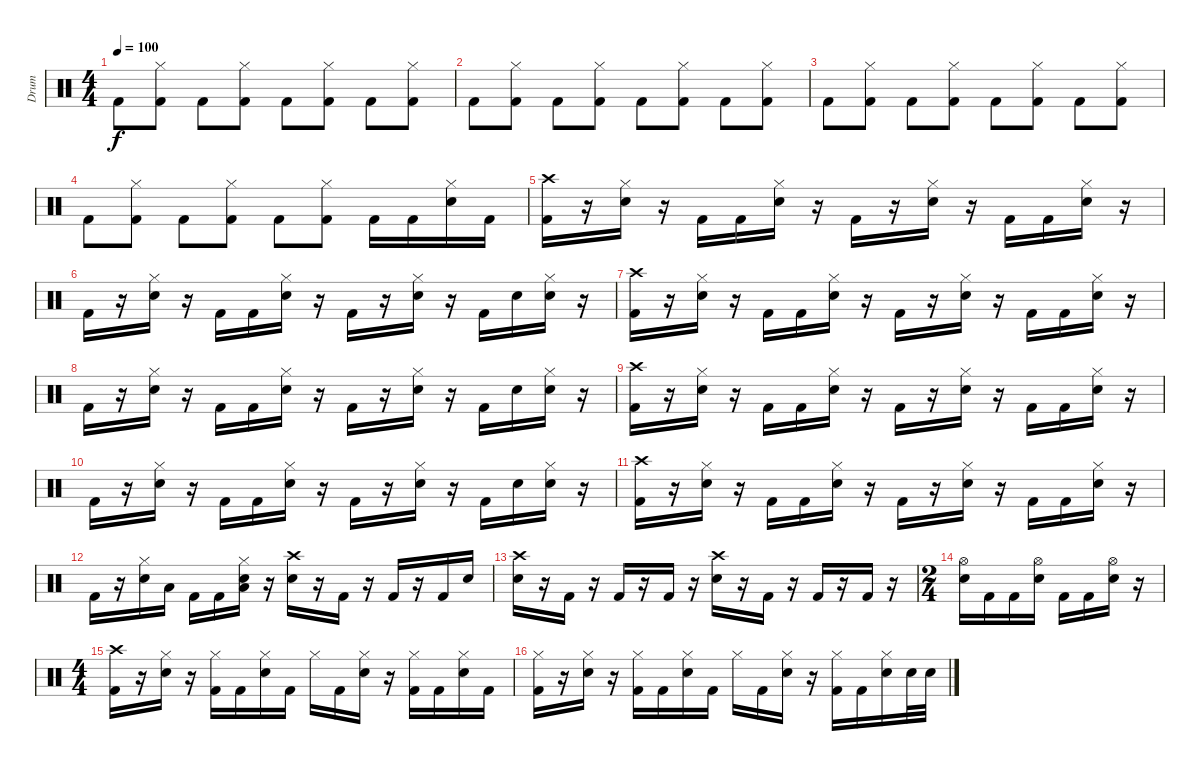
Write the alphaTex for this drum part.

\track ("Drum" "Drum") {instrument percussion}
\staff {score}
\articulation defaults
\ts (4 4)
\tempo 100
\clef neutral
\ks c "Kick (hit) 2".8{dy f}
("Hi-Hat (closed)" "Kick (hit) 2").8 "Kick (hit) 2".8 ("Hi-Hat (closed)" "Kick (hit) 2").8 "Kick (hit) 2".8 ("Hi-Hat (closed)" "Kick (hit) 2").8 "Kick (hit) 2".8 ("Hi-Hat (closed)" "Kick (hit) 2").8 |
"Kick (hit) 2".8 ("Hi-Hat (closed)" "Kick (hit) 2").8 "Kick (hit) 2".8 ("Hi-Hat (closed)" "Kick (hit) 2").8 "Kick (hit) 2".8 ("Hi-Hat (closed)" "Kick (hit) 2").8 "Kick (hit) 2".8 ("Hi-Hat (closed)" "Kick (hit) 2").8 |
"Kick (hit) 2".8 ("Hi-Hat (closed)" "Kick (hit) 2").8 "Kick (hit) 2".8 ("Hi-Hat (closed)" "Kick (hit) 2").8 "Kick (hit) 2".8 ("Hi-Hat (closed)" "Kick (hit) 2").8 "Kick (hit) 2".8 ("Hi-Hat (closed)" "Kick (hit) 2").8 |
"Kick (hit) 2".8 ("Hi-Hat (closed)" "Kick (hit) 2").8 "Kick (hit) 2".8 ("Hi-Hat (closed)" "Kick (hit) 2").8 "Kick (hit) 2".8 ("Hi-Hat (closed)" "Kick (hit) 2").8 "Kick (hit) 2".16 "Kick (hit) 2".16 ("Hi-Hat (closed)" "Electric Snare (hit)").16 "Kick (hit) 2".16 |
("Crash high (hit)" "Kick (hit) 2").16 r.16 ("Hi-Hat (closed)" "Electric Snare (hit)").16 r.16 "Kick (hit) 2".16 "Kick (hit) 2".16 ("Hi-Hat (closed)" "Electric Snare (hit)").16 r.16 "Kick (hit) 2".16 r.16 ("Hi-Hat (closed)" "Electric Snare (hit)").16 r.16 "Kick (hit) 2".16 "Kick (hit) 2".16 ("Hi-Hat (closed)" "Electric Snare (hit)").16 r.16 |
"Kick (hit) 2".16 r.16 ("Hi-Hat (closed)" "Electric Snare (hit)").16 r.16 "Kick (hit) 2".16 "Kick (hit) 2".16 ("Hi-Hat (closed)" "Electric Snare (hit)").16 r.16 "Kick (hit) 2".16 r.16 ("Hi-Hat (closed)" "Electric Snare (hit)").16 r.16 "Kick (hit) 2".16 "Electric Snare (hit)".16 ("Hi-Hat (closed)" "Electric Snare (hit)").16 r.16 |
("Crash high (hit)" "Kick (hit) 2").16 r.16 ("Hi-Hat (closed)" "Electric Snare (hit)").16 r.16 "Kick (hit) 2".16 "Kick (hit) 2".16 ("Hi-Hat (closed)" "Electric Snare (hit)").16 r.16 "Kick (hit) 2".16 r.16 ("Hi-Hat (closed)" "Electric Snare (hit)").16 r.16 "Kick (hit) 2".16 "Kick (hit) 2".16 ("Hi-Hat (closed)" "Electric Snare (hit)").16 r.16 |
"Kick (hit) 2".16 r.16 ("Hi-Hat (closed)" "Electric Snare (hit)").16 r.16 "Kick (hit) 2".16 "Kick (hit) 2".16 ("Hi-Hat (closed)" "Electric Snare (hit)").16 r.16 "Kick (hit) 2".16 r.16 ("Hi-Hat (closed)" "Electric Snare (hit)").16 r.16 "Kick (hit) 2".16 "Electric Snare (hit)".16 ("Hi-Hat (closed)" "Electric Snare (hit)").16 r.16 |
("Crash high (hit)" "Kick (hit) 2").16 r.16 ("Hi-Hat (closed)" "Electric Snare (hit)").16 r.16 "Kick (hit) 2".16 "Kick (hit) 2".16 ("Hi-Hat (closed)" "Electric Snare (hit)").16 r.16 "Kick (hit) 2".16 r.16 ("Hi-Hat (closed)" "Electric Snare (hit)").16 r.16 "Kick (hit) 2".16 "Kick (hit) 2".16 ("Hi-Hat (closed)" "Electric Snare (hit)").16 r.16 |
"Kick (hit) 2".16 r.16 ("Hi-Hat (closed)" "Electric Snare (hit)").16 r.16 "Kick (hit) 2".16 "Kick (hit) 2".16 ("Hi-Hat (closed)" "Electric Snare (hit)").16 r.16 "Kick (hit) 2".16 r.16 ("Hi-Hat (closed)" "Electric Snare (hit)").16 r.16 "Kick (hit) 2".16 "Electric Snare (hit)".16 ("Hi-Hat (closed)" "Electric Snare (hit)").16 r.16 |
("Crash high (hit)" "Kick (hit) 2").16 r.16 ("Hi-Hat (closed)" "Electric Snare (hit)").16 r.16 "Kick (hit) 2".16 "Kick (hit) 2".16 ("Hi-Hat (closed)" "Electric Snare (hit)").16 r.16 "Kick (hit) 2".16 r.16 ("Hi-Hat (closed)" "Electric Snare (hit)").16 r.16 "Kick (hit) 2".16 "Kick (hit) 2".16 ("Hi-Hat (closed)" "Electric Snare (hit)").16 r.16 |
"Kick (hit) 2".16 r.16 ("Hi-Hat (closed)" "Electric Snare (hit)").16 "Low Tom (hit)".16 "Kick (hit) 2".16 "Kick (hit) 2".16 ("Hi-Hat (closed)" "Low Tom (hit)" "Electric Snare (hit)").16 r.16 ("Crash high (hit)" "Electric Snare (hit)").16 r.16 "Kick (hit) 2".16 r.16 "Kick (hit) 2".16 r.16 "Kick (hit) 2".16 "Electric Snare (hit)".16 |
("Crash high (hit)" "Electric Snare (hit)").16 r.16 "Kick (hit) 2".16 r.16 "Kick (hit) 2".16 r.16 "Kick (hit) 2".16 r.16 ("Crash high (hit)" "Electric Snare (hit)").16 r.16 "Kick (hit) 2".16 r.16 "Kick (hit) 2".16 r.16 "Kick (hit) 2".16 r.16 |
\ts (2 4)
("Hi-Hat (open)" "Electric Snare (hit)").16 "Kick (hit) 2".16 "Kick (hit) 2".16 ("Hi-Hat (open)" "Electric Snare (hit)").16 "Kick (hit) 2".16 "Kick (hit) 2".16 ("Hi-Hat (open)" "Electric Snare (hit)").16 r.16 |
\ts (4 4)
("Crash high (hit)" "Kick (hit) 2").16 r.16 ("Hi-Hat (closed)" "Electric Snare (hit)").16 r.16 ("Hi-Hat (closed)" "Kick (hit) 2").16 "Kick (hit) 2".16 ("Hi-Hat (closed)" "Electric Snare (hit)").16 "Kick (hit) 2".16 "Hi-Hat (closed)".16 "Kick (hit) 2".16 ("Hi-Hat (closed)" "Electric Snare (hit)").16 r.16 ("Hi-Hat (closed)" "Kick (hit) 2").16 "Kick (hit) 2".16 ("Hi-Hat (closed)" "Electric Snare (hit)").16 "Kick (hit) 2".16 |
("Hi-Hat (closed)" "Kick (hit) 2").16 r.16 ("Hi-Hat (closed)" "Electric Snare (hit)").16 r.16 ("Hi-Hat (closed)" "Kick (hit) 2").16 "Kick (hit) 2".16 ("Hi-Hat (closed)" "Electric Snare (hit)").16 "Kick (hit) 2".16 "Hi-Hat (closed)".16 "Kick (hit) 2".16 ("Hi-Hat (closed)" "Electric Snare (hit)").16 r.16 ("Hi-Hat (closed)" "Kick (hit) 2").16 "Kick (hit) 2".16 ("Hi-Hat (closed)" "Electric Snare (hit)").16 "Electric Snare (hit)".32 "Electric Snare (hit)".32
